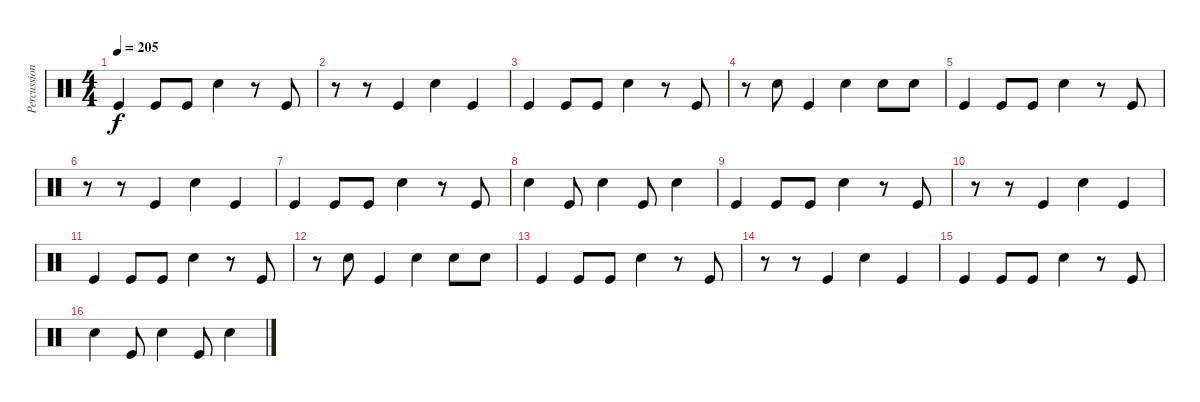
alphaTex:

\track ("Percussion" "Percussion") {instrument percussion}
\staff {score}
\articulation defaults
\ts (4 4)
\tempo 205
\clef neutral
\ks c "Kick (hit)".4{dy f} "Kick (hit)".8 "Kick (hit)".8 "Snare (hit) 2".4
r.8 "Kick (hit)".8 |
r.8 r.8 "Kick (hit)".4 "Snare (hit) 2".4 "Kick (hit)".4 |
"Kick (hit)".4 "Kick (hit)".8 "Kick (hit)".8 "Snare (hit) 2".4 r.8 "Kick (hit)".8 |
r.8 "Snare (hit) 2".8 "Kick (hit)".4 "Snare (hit) 2".4 "Snare (hit) 2".8 "Snare (hit) 2".8 |
"Kick (hit)".4 "Kick (hit)".8 "Kick (hit)".8 "Snare (hit) 2".4 r.8 "Kick (hit)".8 |
r.8 r.8 "Kick (hit)".4 "Snare (hit) 2".4 "Kick (hit)".4 |
"Kick (hit)".4 "Kick (hit)".8 "Kick (hit)".8 "Snare (hit) 2".4 r.8 "Kick (hit)".8 |
"Snare (hit) 2".4 "Kick (hit)".8 "Snare (hit) 2".4 "Kick (hit)".8 "Snare (hit) 2".4 |
"Kick (hit)".4 "Kick (hit)".8 "Kick (hit)".8 "Snare (hit) 2".4 r.8 "Kick (hit)".8 |
r.8 r.8 "Kick (hit)".4 "Snare (hit) 2".4 "Kick (hit)".4 |
"Kick (hit)".4 "Kick (hit)".8 "Kick (hit)".8 "Snare (hit) 2".4 r.8 "Kick (hit)".8 |
r.8 "Snare (hit) 2".8 "Kick (hit)".4 "Snare (hit) 2".4 "Snare (hit) 2".8 "Snare (hit) 2".8 |
"Kick (hit)".4 "Kick (hit)".8 "Kick (hit)".8 "Snare (hit) 2".4 r.8 "Kick (hit)".8 |
r.8 r.8 "Kick (hit)".4 "Snare (hit) 2".4 "Kick (hit)".4 |
"Kick (hit)".4 "Kick (hit)".8 "Kick (hit)".8 "Snare (hit) 2".4 r.8 "Kick (hit)".8 |
"Snare (hit) 2".4 "Kick (hit)".8 "Snare (hit) 2".4 "Kick (hit)".8 "Snare (hit) 2".4
